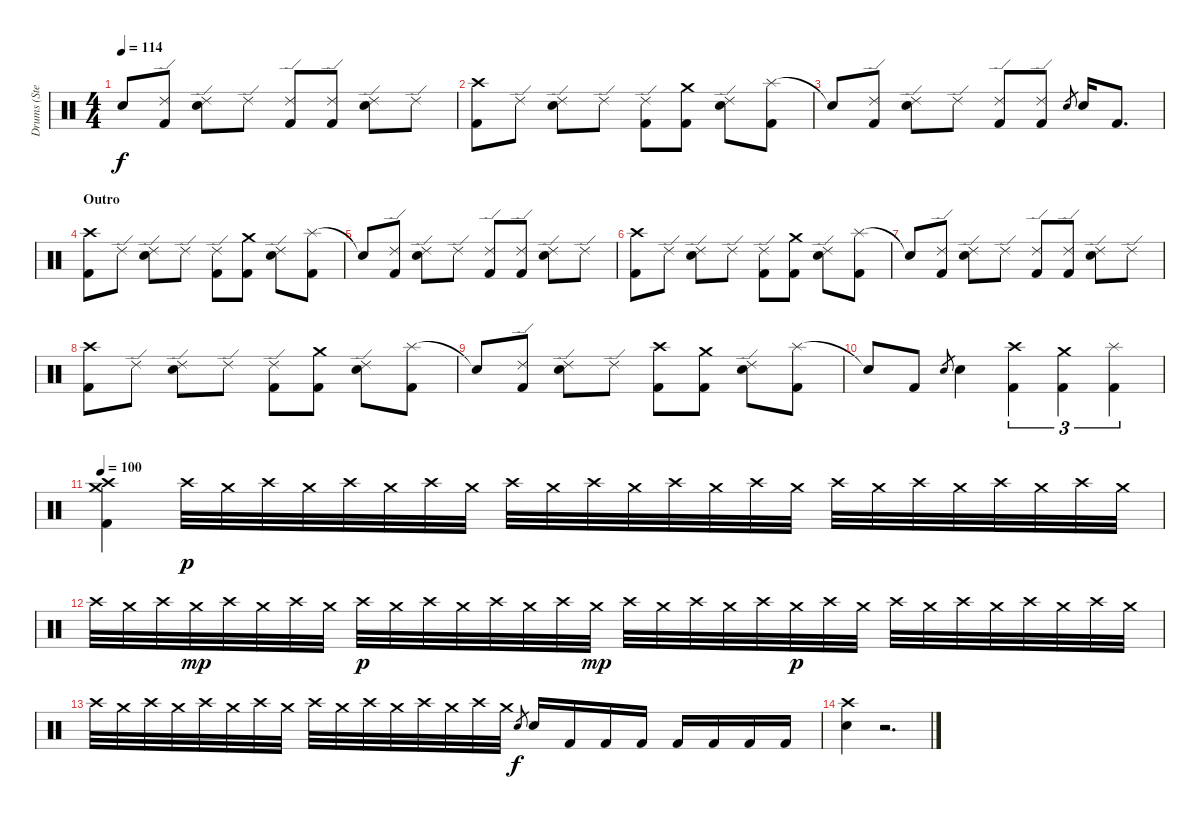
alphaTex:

\track ("Drums (Steven)" "Drums (Ste") {instrument percussion}
\staff {score}
\articulation defaults
\ts (4 4)
\tempo 114
\clef neutral
\ks c "Snare (hit)"{t}.8{dy f}
("Ride (edge) 2" "Kick (hit) 2").8 ("Ride (edge) 2" "Snare (hit) 2").8 "Ride (edge) 2".8 ("Ride (edge) 2" "Kick (hit) 2").8 ("Ride (edge) 2" "Kick (hit) 2").8 ("Ride (edge) 2" "Snare (hit) 2").8 "Ride (edge) 2".8 |
("Crash high (hit)" "Kick (hit) 2").8 "Ride (edge) 2".8 ("Ride (edge) 2" "Snare (hit) 2").8 "Ride (edge) 2".8 ("Ride (edge) 2" "Kick (hit) 2").8 ("Crash medium (hit)" "Kick (hit) 2").8 ("Ride (edge) 2" "Snare (hit) 2").8 ("Splash (hit)" "Kick (hit) 2").8 |
"Snare (hit)"{t}.8 ("Ride (edge) 2" "Kick (hit) 2").8 ("Ride (edge) 2" "Snare (hit) 2").8 "Ride (edge) 2".8 ("Ride (edge) 2" "Kick (hit) 2").8 ("Ride (edge) 2" "Kick (hit) 2").8 "Snare (hit) 2".8{gr} "Snare (hit) 2".16 "Kick (hit) 2".8{d} |
\section ("" "Outro")
("Crash high (hit)" "Kick (hit) 2").8 "Ride (edge) 2".8 ("Ride (edge) 2" "Snare (hit) 2").8 "Ride (edge) 2".8 ("Ride (edge) 2" "Kick (hit) 2").8 ("Crash medium (hit)" "Kick (hit) 2").8 ("Ride (edge) 2" "Snare (hit) 2").8 ("Splash (hit)" "Kick (hit) 2").8 |
"Snare (hit)"{t}.8 ("Ride (edge) 2" "Kick (hit) 2").8 ("Ride (edge) 2" "Snare (hit) 2").8 "Ride (edge) 2".8 ("Ride (edge) 2" "Kick (hit) 2").8 ("Ride (edge) 2" "Kick (hit) 2").8 ("Ride (edge) 2" "Snare (hit) 2").8 "Ride (edge) 2".8 |
("Crash high (hit)" "Kick (hit) 2").8 "Ride (edge) 2".8 ("Ride (edge) 2" "Snare (hit) 2").8 "Ride (edge) 2".8 ("Ride (edge) 2" "Kick (hit) 2").8 ("Crash medium (hit)" "Kick (hit) 2").8 ("Ride (edge) 2" "Snare (hit) 2").8 ("Splash (hit)" "Kick (hit) 2").8 |
"Snare (hit)"{t}.8 ("Ride (edge) 2" "Kick (hit) 2").8 ("Ride (edge) 2" "Snare (hit) 2").8 "Ride (edge) 2".8 ("Ride (edge) 2" "Kick (hit) 2").8 ("Ride (edge) 2" "Kick (hit) 2").8 ("Ride (edge) 2" "Snare (hit) 2").8 "Ride (edge) 2".8 |
("Crash high (hit)" "Kick (hit) 2").8 "Ride (edge) 2".8 ("Ride (edge) 2" "Snare (hit) 2").8 "Ride (edge) 2".8 ("Ride (edge) 2" "Kick (hit) 2").8 ("Crash medium (hit)" "Kick (hit) 2").8 ("Ride (edge) 2" "Snare (hit) 2").8 ("Splash (hit)" "Kick (hit) 2").8 |
"Snare (hit)"{t}.8 ("Ride (edge) 2" "Kick (hit) 2").8 ("Ride (edge) 2" "Snare (hit) 2").8 "Ride (edge) 2".8 ("Crash high (hit)" "Kick (hit) 2").8 ("Crash medium (hit)" "Kick (hit) 2").8 ("Ride (edge) 2" "Snare (hit) 2").8 ("Splash (hit)" "Kick (hit) 2").8 |
"Snare (hit)"{t}.8 "Kick (hit) 2".8 "Snare (hit) 2".8{gr} "Snare (hit) 2".4 ("Crash high (hit)" "Kick (hit) 2").4{tu (3 2)} ("Crash medium (hit)" "Kick (hit) 2").4{tu (3 2)} ("Splash (hit)" "Kick (hit) 2").4{tu (3 2)} |
\tempo 100
("Crash high (hit)" "Crash medium (hit)" "Kick (hit) 2").4 "Crash high (hit)".32{dy p} "Crash medium (hit)".32 "Crash high (hit)".32 "Crash medium (hit)".32 "Crash high (hit)".32 "Crash medium (hit)".32 "Crash high (hit)".32 "Crash medium (hit)".32 "Crash high (hit)".32 "Crash medium (hit)".32 "Crash high (hit)".32 "Crash medium (hit)".32 "Crash high (hit)".32 "Crash medium (hit)".32 "Crash high (hit)".32 "Crash medium (hit)".32 "Crash high (hit)".32 "Crash medium (hit)".32 "Crash high (hit)".32 "Crash medium (hit)".32 "Crash high (hit)".32 "Crash medium (hit)".32 "Crash high (hit)".32 "Crash medium (hit)".32 |
"Crash high (hit)".32 "Crash medium (hit)".32 "Crash high (hit)".32 "Crash medium (hit)".32{dy mp} "Crash high (hit)".32 "Crash medium (hit)".32 "Crash high (hit)".32 "Crash medium (hit)".32 "Crash high (hit)".32{dy p} "Crash medium (hit)".32 "Crash high (hit)".32 "Crash medium (hit)".32 "Crash high (hit)".32 "Crash medium (hit)".32 "Crash high (hit)".32 "Crash medium (hit)".32{dy mp} "Crash high (hit)".32 "Crash medium (hit)".32 "Crash high (hit)".32 "Crash medium (hit)".32 "Crash high (hit)".32 "Crash medium (hit)".32{dy p} "Crash high (hit)".32 "Crash medium (hit)".32 "Crash high (hit)".32 "Crash medium (hit)".32 "Crash high (hit)".32 "Crash medium (hit)".32 "Crash high (hit)".32 "Crash medium (hit)".32 "Crash high (hit)".32 "Crash medium (hit)".32 |
"Crash high (hit)".32 "Crash medium (hit)".32 "Crash high (hit)".32 "Crash medium (hit)".32 "Crash high (hit)".32 "Crash medium (hit)".32 "Crash high (hit)".32 "Crash medium (hit)".32 "Crash high (hit)".32 "Crash medium (hit)".32 "Crash high (hit)".32 "Crash medium (hit)".32 "Crash high (hit)".32 "Crash medium (hit)".32 "Crash high (hit)".32 "Crash medium (hit)".32 "Snare (hit) 2".8{gr dy f} "Snare (hit) 2".16 "Kick (hit) 2".16 "Kick (hit) 2".16 "Kick (hit) 2".16 "Kick (hit) 2".16 "Kick (hit) 2".16 "Kick (hit) 2".16 "Kick (hit) 2".16 |
("Crash high (hit)" "Snare (hit) 2").4 r.2{d}
